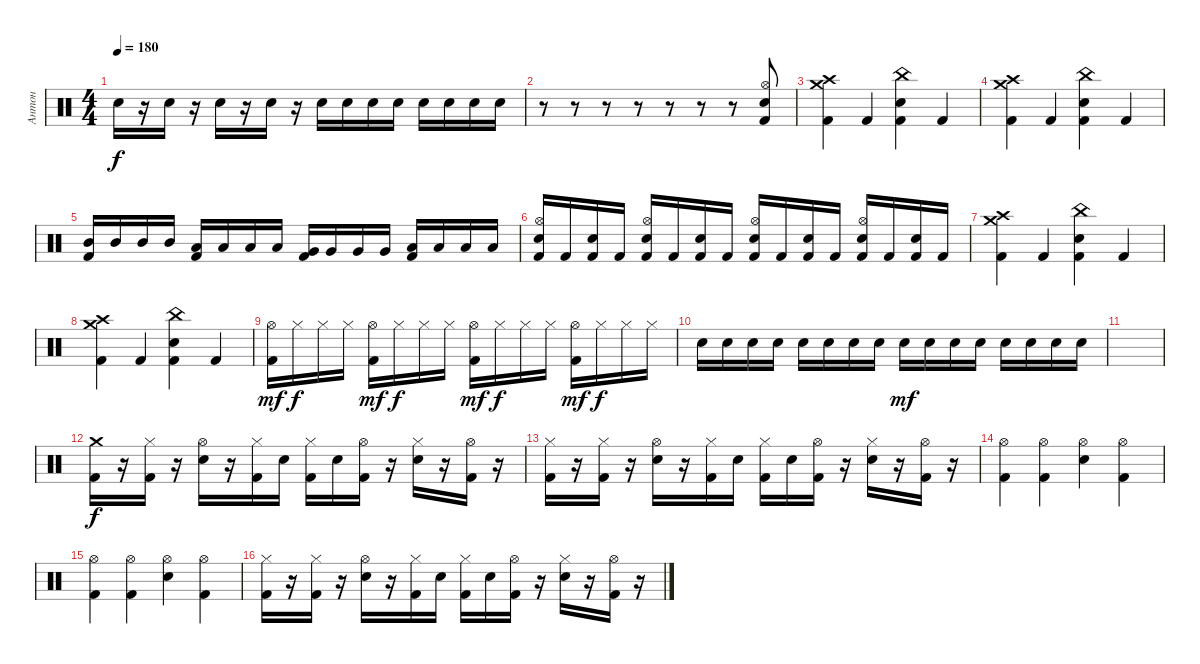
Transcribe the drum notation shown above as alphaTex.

\track ("Антон" "Антон") {instrument percussion}
\staff {score}
\articulation defaults
\ts (4 4)
\tempo 180
\clef neutral
\ks c "Electric Snare (hit)".16{dy f}
r.16 "Electric Snare (hit)".16 r.16 "Electric Snare (hit)".16 r.16 "Electric Snare (hit)".16 r.16 "Electric Snare (hit)".16 "Electric Snare (hit)".16 "Electric Snare (hit)".16 "Electric Snare (hit)".16 "Electric Snare (hit)".16 "Electric Snare (hit)".16 "Electric Snare (hit)".16 "Electric Snare (hit)".16 |
r.8 r.8 r.8 r.8 r.8 r.8 r.8 ("Hi-Hat (open)" "Electric Snare (hit)" "Kick (hit) 2").8 |
("Crash high (hit)" "Crash medium (hit)" "Kick (hit) 2").4 "Kick (hit) 2".4 ("China (hit)" "Electric Snare (hit)" "Kick (hit) 2").4 "Kick (hit) 2".4 |
("Crash high (hit)" "Crash medium (hit)" "Kick (hit) 2").4 "Kick (hit) 2".4 ("China (hit)" "Electric Snare (hit)" "Kick (hit) 2").4 "Kick (hit) 2".4 |
("Kick (hit) 2" "Mid Tom (hit)").16 "Mid Tom (hit)".16 "Mid Tom (hit)".16 "Mid Tom (hit)".16 ("Kick (hit) 2" "Low Tom (hit)").16 "Low Tom (hit)".16 "Low Tom (hit)".16 "Low Tom (hit)".16 ("Kick (hit) 2" "Very Low Tom (hit)").16 "Very Low Tom (hit)".16 "Very Low Tom (hit)".16 "Very Low Tom (hit)".16 ("Kick (hit) 2" "Low Floor Tom (hit)").16 "Low Floor Tom (hit)".16 "Low Floor Tom (hit)".16 "Low Floor Tom (hit)".16 |
("Hi-Hat (open)" "Electric Snare (hit)" "Kick (hit) 2").16 "Kick (hit) 2".16 ("Electric Snare (hit)" "Kick (hit) 2").16 "Kick (hit) 2".16 ("Hi-Hat (open)" "Electric Snare (hit)" "Kick (hit) 2").16 "Kick (hit) 2".16 ("Electric Snare (hit)" "Kick (hit) 2").16 "Kick (hit) 2".16 ("Hi-Hat (open)" "Electric Snare (hit)" "Kick (hit) 2").16 "Kick (hit) 2".16 ("Electric Snare (hit)" "Kick (hit) 2").16 "Kick (hit) 2".16 ("Hi-Hat (open)" "Electric Snare (hit)" "Kick (hit) 2").16 "Kick (hit) 2".16 ("Electric Snare (hit)" "Kick (hit) 2").16 "Kick (hit) 2".16 |
("Crash high (hit)" "Crash medium (hit)" "Kick (hit) 2").4 "Kick (hit) 2".4 ("China (hit)" "Electric Snare (hit)" "Kick (hit) 2").4 "Kick (hit) 2".4 |
("Crash high (hit)" "Crash medium (hit)" "Kick (hit) 2").4 "Kick (hit) 2".4 ("China (hit)" "Electric Snare (hit)" "Kick (hit) 2").4 "Kick (hit) 2".4 |
("Hi-Hat (open)" "Kick (hit) 2").16{dy mf} "Hi-Hat (closed)".16{dy f} "Hi-Hat (closed)".16 "Hi-Hat (closed)".16 ("Hi-Hat (open)" "Kick (hit) 2").16{dy mf} "Hi-Hat (closed)".16{dy f} "Hi-Hat (closed)".16 "Hi-Hat (closed)".16 ("Hi-Hat (open)" "Kick (hit) 2").16{dy mf} "Hi-Hat (closed)".16{dy f} "Hi-Hat (closed)".16 "Hi-Hat (closed)".16 ("Hi-Hat (open)" "Kick (hit) 2").16{dy mf} "Hi-Hat (closed)".16{dy f} "Hi-Hat (closed)".16 "Hi-Hat (closed)".16 |
"Electric Snare (hit)".16 "Electric Snare (hit)".16 "Electric Snare (hit)".16 "Electric Snare (hit)".16 "Electric Snare (hit)".16 "Electric Snare (hit)".16 "Electric Snare (hit)".16 "Electric Snare (hit)".16 "Electric Snare (hit)".16{dy mf} "Electric Snare (hit)".16 "Electric Snare (hit)".16 "Electric Snare (hit)".16 "Electric Snare (hit)".16 "Electric Snare (hit)".16 "Electric Snare (hit)".16 "Electric Snare (hit)".16 |
|
("Crash medium (hit)" "Kick (hit) 2").16{dy f} r.16 ("Hi-Hat (closed)" "Kick (hit) 2").16 r.16 ("Hi-Hat (open)" "Electric Snare (hit)").16 r.16 ("Hi-Hat (closed)" "Kick (hit) 2").16 "Electric Snare (hit)".16 ("Hi-Hat (closed)" "Kick (hit) 2").16 "Electric Snare (hit)".16 ("Hi-Hat (open)" "Kick (hit) 2").16 r.16 ("Hi-Hat (closed)" "Electric Snare (hit)").16 r.16 ("Hi-Hat (open)" "Kick (hit) 2").16 r.16 |
("Hi-Hat (closed)" "Kick (hit) 2").16 r.16 ("Hi-Hat (closed)" "Kick (hit) 2").16 r.16 ("Hi-Hat (open)" "Electric Snare (hit)").16 r.16 ("Hi-Hat (closed)" "Kick (hit) 2").16 "Electric Snare (hit)".16 ("Hi-Hat (closed)" "Kick (hit) 2").16 "Electric Snare (hit)".16 ("Hi-Hat (open)" "Kick (hit) 2").16 r.16 ("Hi-Hat (closed)" "Electric Snare (hit)").16 r.16 ("Hi-Hat (open)" "Kick (hit) 2").16 r.16 |
("Hi-Hat (open)" "Kick (hit) 2").4 ("Hi-Hat (open)" "Kick (hit) 2").4 ("Hi-Hat (open)" "Electric Snare (hit)").4 ("Hi-Hat (open)" "Kick (hit) 2").4 |
("Hi-Hat (open)" "Kick (hit) 2").4 ("Hi-Hat (open)" "Kick (hit) 2").4 ("Hi-Hat (open)" "Electric Snare (hit)").4 ("Hi-Hat (open)" "Kick (hit) 2").4 |
("Hi-Hat (closed)" "Kick (hit) 2").16 r.16 ("Hi-Hat (closed)" "Kick (hit) 2").16 r.16 ("Hi-Hat (open)" "Electric Snare (hit)").16 r.16 ("Hi-Hat (closed)" "Kick (hit) 2").16 "Electric Snare (hit)".16 ("Hi-Hat (closed)" "Kick (hit) 2").16 "Electric Snare (hit)".16 ("Hi-Hat (open)" "Kick (hit) 2").16 r.16 ("Hi-Hat (closed)" "Electric Snare (hit)").16 r.16 ("Hi-Hat (open)" "Kick (hit) 2").16 r.16
